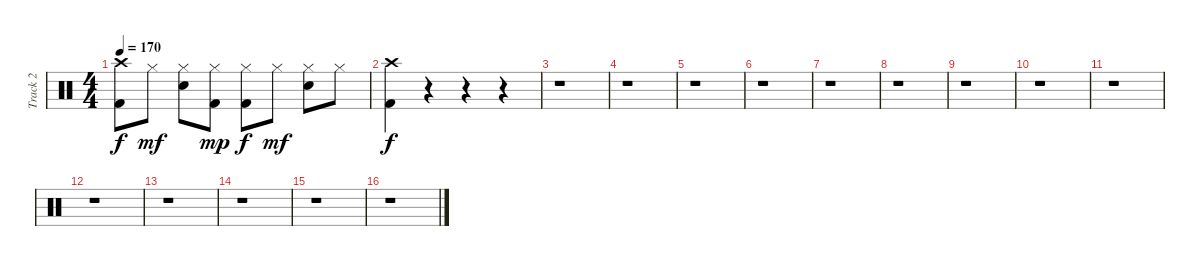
\track ("Track 2" "Track 2") {instrument percussion}
\staff {score}
\articulation defaults
\ts (4 4)
\tempo 170
\clef neutral
\ks c
("Crash high (hit)" "Kick (hit) 2").8{dy f} "Hi-Hat (closed)".8{dy mf} ("Hi-Hat (closed)" "Electric Snare (hit)").8 ("Hi-Hat (closed)" "Kick (hit) 2").8{dy mp} ("Hi-Hat (closed)" "Kick (hit) 2").8{dy f} "Hi-Hat (closed)".8{dy mf} ("Hi-Hat (closed)" "Electric Snare (hit)").8 "Hi-Hat (closed)".8 |
("Crash high (hit)" "Kick (hit) 2").4{dy f} r.4 r.4 r.4 |
r.1 |
r.1 |
r.1 |
r.1 |
r.1 |
r.1 |
r.1 |
r.1 |
r.1 |
r.1 |
r.1 |
r.1 |
r.1 |
r.1
